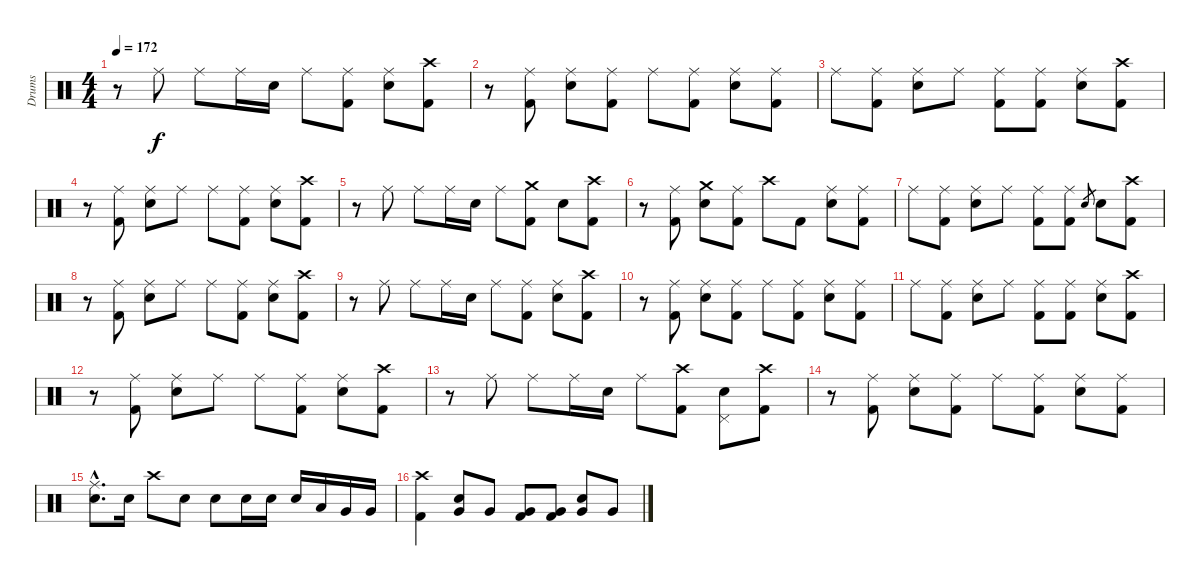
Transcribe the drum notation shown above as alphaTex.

\track ("Drums" "Drums") {instrument percussion}
\staff {score}
\articulation defaults
\ts (4 4)
\tempo 172
\clef neutral
\ks c
r.8{dy f} "Ride (middle)".8 "Ride (middle)".8 "Ride (middle)".16 "Electric Snare (hit)".16 "Ride (middle)".8 ("Ride (middle)" "Kick (hit) 2").8 ("Ride (middle)" "Electric Snare (hit)").8 ("Crash high (hit)" "Kick (hit) 2").8 |
r.8 ("Ride (middle)" "Kick (hit) 2").8 ("Ride (middle)" "Electric Snare (hit)").8 ("Ride (middle)" "Kick (hit) 2").8 "Ride (middle)".8 ("Ride (middle)" "Kick (hit) 2").8 ("Ride (middle)" "Electric Snare (hit)").8 ("Ride (middle)" "Kick (hit) 2").8 |
"Ride (middle)".8 ("Ride (middle)" "Kick (hit) 2").8 ("Ride (middle)" "Electric Snare (hit)").8 "Ride (middle)".8 ("Ride (middle)" "Kick (hit) 2").8 ("Ride (middle)" "Kick (hit) 2").8 ("Ride (middle)" "Electric Snare (hit)").8 ("Crash high (hit)" "Kick (hit) 2").8 |
r.8 ("Ride (middle)" "Kick (hit) 2").8 ("Ride (middle)" "Electric Snare (hit)").8 "Ride (middle)".8 "Ride (middle)".8 ("Ride (middle)" "Kick (hit) 2").8 ("Ride (middle)" "Electric Snare (hit)").8 ("Crash high (hit)" "Kick (hit) 2").8 |
r.8 "Ride (middle)".8 "Ride (middle)".8 "Ride (middle)".16 "Electric Snare (hit)".16 "Ride (middle)".8 ("Crash medium (hit)" "Kick (hit) 2").8 "Electric Snare (hit)".8 ("Crash high (hit)" "Kick (hit) 2").8 |
r.8 ("Ride (middle)" "Kick (hit) 2").8 ("Crash medium (hit)" "Electric Snare (hit)").8 ("Ride (middle)" "Kick (hit) 2").8 "Crash high (hit)".8 "Kick (hit) 2".8 ("Ride (middle)" "Electric Snare (hit)").8 ("Ride (middle)" "Kick (hit) 2").8 |
"Ride (middle)".8 ("Ride (middle)" "Kick (hit) 2").8 ("Ride (middle)" "Electric Snare (hit)").8 "Ride (middle)".8 ("Ride (middle)" "Kick (hit) 2").8 ("Ride (middle)" "Kick (hit) 2").8 "Electric Snare (hit)".8{gr} "Electric Snare (hit)".8 ("Crash high (hit)" "Kick (hit) 2").8 |
r.8 ("Ride (middle)" "Kick (hit) 2").8 ("Ride (middle)" "Electric Snare (hit)").8 "Ride (middle)".8 "Ride (middle)".8 ("Ride (middle)" "Kick (hit) 2").8 ("Ride (middle)" "Electric Snare (hit)").8 ("Crash high (hit)" "Kick (hit) 2").8 |
r.8 "Ride (middle)".8 "Ride (middle)".8 "Ride (middle)".16 "Electric Snare (hit)".16 "Ride (middle)".8 ("Ride (middle)" "Kick (hit) 2").8 ("Ride (middle)" "Electric Snare (hit)").8 ("Crash high (hit)" "Kick (hit) 2").8 |
r.8 ("Ride (middle)" "Kick (hit) 2").8 ("Ride (middle)" "Electric Snare (hit)").8 ("Ride (middle)" "Kick (hit) 2").8 "Ride (middle)".8 ("Ride (middle)" "Kick (hit) 2").8 ("Ride (middle)" "Electric Snare (hit)").8 ("Ride (middle)" "Kick (hit) 2").8 |
"Ride (middle)".8 ("Ride (middle)" "Kick (hit) 2").8 ("Ride (middle)" "Electric Snare (hit)").8 "Ride (middle)".8 ("Ride (middle)" "Kick (hit) 2").8 ("Ride (middle)" "Kick (hit) 2").8 ("Ride (middle)" "Electric Snare (hit)").8 ("Crash high (hit)" "Kick (hit) 2").8 |
r.8 ("Ride (middle)" "Kick (hit) 2").8 ("Ride (middle)" "Electric Snare (hit)").8 "Ride (middle)".8 "Ride (middle)".8 ("Ride (middle)" "Kick (hit) 2").8 ("Ride (middle)" "Electric Snare (hit)").8 ("Crash high (hit)" "Kick (hit) 2").8 |
r.8 "Ride (middle)".8 "Ride (middle)".8 "Ride (middle)".16 "Electric Snare (hit)".16 "Ride (middle)".8 ("Crash high (hit)" "Kick (hit) 2").8 ("Pedal Hi-Hat (hit)" "Electric Snare (hit)").8 ("Crash high (hit)" "Kick (hit) 2").8 |
r.8 ("Ride (middle)" "Kick (hit) 2").8 ("Ride (middle)" "Electric Snare (hit)").8 ("Ride (middle)" "Kick (hit) 2").8 "Ride (middle)".8 ("Ride (middle)" "Kick (hit) 2").8 ("Ride (middle)" "Electric Snare (hit)").8 ("Ride (middle)" "Kick (hit) 2").8 |
("Ride (middle)"{hac} "Electric Snare (hit)"{hac}).8{d} "Electric Snare (hit)".16 "Crash high (hit)".8 "Electric Snare (hit)".8 "Electric Snare (hit)".8 "Electric Snare (hit)".16 "Electric Snare (hit)".16 "Electric Snare (hit)".16 "Low Tom (hit)".16 "Very Low Tom (hit)".16 "Very Low Tom (hit)".16 |
("Crash high (hit)" "Kick (hit) 2").4 ("Very Low Tom (hit)" "Electric Snare (hit)").8 "Very Low Tom (hit)".8 ("Very Low Tom (hit)" "Kick (hit) 2").8 ("Very Low Tom (hit)" "Kick (hit) 2").8 ("Very Low Tom (hit)" "Electric Snare (hit)").8 "Very Low Tom (hit)".8
